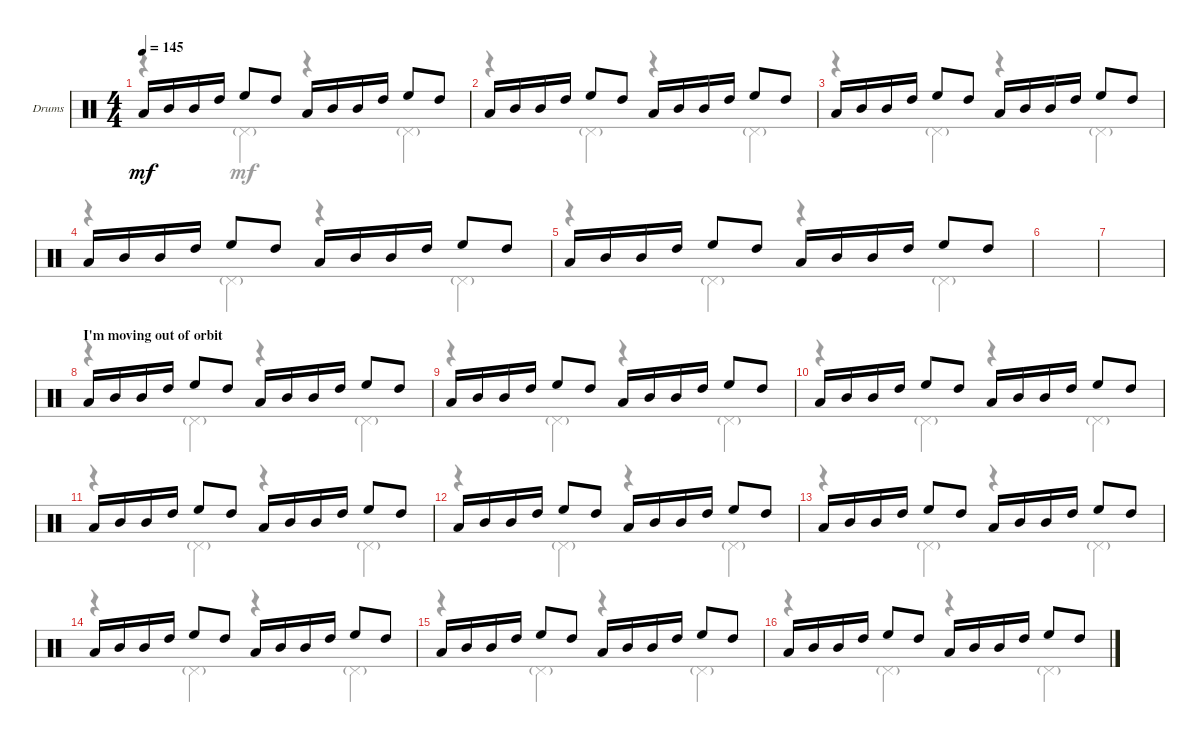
\defaultSystemsLayout 4
\bracketExtendMode groupsimilarinstruments
\firstSystemTrackNameOrientation horizontal
\otherSystemsTrackNameOrientation horizontal
\track ("Drumkit" "Drums") {instrument percussion}
\staff {score}
\articulation defaults
\voice
\ts (4 4)
\tempo 145
\clef neutral
\ks c "Low Tom (hit)".16{dy mf} "Mid Tom (hit)".16 "Mid Tom (hit)".16 "High Tom (hit)".16 "High Floor Tom (hit)".8 "High Tom (hit)".8 "Low Tom (hit)".16 "Mid Tom (hit)".16 "Mid Tom (hit)".16 "High Tom (hit)".16 "High Floor Tom (hit)".8 "High Tom (hit)".8
|
"Low Tom (hit)".16 "Mid Tom (hit)".16 "Mid Tom (hit)".16 "High Tom (hit)".16 "High Floor Tom (hit)".8 "High Tom (hit)".8 "Low Tom (hit)".16 "Mid Tom (hit)".16 "Mid Tom (hit)".16 "High Tom (hit)".16 "High Floor Tom (hit)".8 "High Tom (hit)".8 |
"Low Tom (hit)".16 "Mid Tom (hit)".16 "Mid Tom (hit)".16 "High Tom (hit)".16 "High Floor Tom (hit)".8 "High Tom (hit)".8 "Low Tom (hit)".16 "Mid Tom (hit)".16 "Mid Tom (hit)".16 "High Tom (hit)".16 "High Floor Tom (hit)".8 "High Tom (hit)".8 |
"Low Tom (hit)".16 "Mid Tom (hit)".16 "Mid Tom (hit)".16 "High Tom (hit)".16 "High Floor Tom (hit)".8 "High Tom (hit)".8 "Low Tom (hit)".16 "Mid Tom (hit)".16 "Mid Tom (hit)".16 "High Tom (hit)".16 "High Floor Tom (hit)".8 "High Tom (hit)".8 |
"Low Tom (hit)".16 "Mid Tom (hit)".16 "Mid Tom (hit)".16 "High Tom (hit)".16 "High Floor Tom (hit)".8 "High Tom (hit)".8 "Low Tom (hit)".16 "Mid Tom (hit)".16 "Mid Tom (hit)".16 "High Tom (hit)".16 "High Floor Tom (hit)".8 "High Tom (hit)".8 |
|
|
\section ("" "I'm moving out of orbit")
"Low Tom (hit)".16 "Mid Tom (hit)".16 "Mid Tom (hit)".16 "High Tom (hit)".16 "High Floor Tom (hit)".8 "High Tom (hit)".8 "Low Tom (hit)".16 "Mid Tom (hit)".16 "Mid Tom (hit)".16 "High Tom (hit)".16 "High Floor Tom (hit)".8 "High Tom (hit)".8 |
"Low Tom (hit)".16 "Mid Tom (hit)".16 "Mid Tom (hit)".16 "High Tom (hit)".16 "High Floor Tom (hit)".8 "High Tom (hit)".8 "Low Tom (hit)".16 "Mid Tom (hit)".16 "Mid Tom (hit)".16 "High Tom (hit)".16 "High Floor Tom (hit)".8 "High Tom (hit)".8 |
"Low Tom (hit)".16 "Mid Tom (hit)".16 "Mid Tom (hit)".16 "High Tom (hit)".16 "High Floor Tom (hit)".8 "High Tom (hit)".8 "Low Tom (hit)".16 "Mid Tom (hit)".16 "Mid Tom (hit)".16 "High Tom (hit)".16 "High Floor Tom (hit)".8 "High Tom (hit)".8 |
"Low Tom (hit)".16 "Mid Tom (hit)".16 "Mid Tom (hit)".16 "High Tom (hit)".16 "High Floor Tom (hit)".8 "High Tom (hit)".8 "Low Tom (hit)".16 "Mid Tom (hit)".16 "Mid Tom (hit)".16 "High Tom (hit)".16 "High Floor Tom (hit)".8 "High Tom (hit)".8 |
"Low Tom (hit)".16 "Mid Tom (hit)".16 "Mid Tom (hit)".16 "High Tom (hit)".16 "High Floor Tom (hit)".8 "High Tom (hit)".8 "Low Tom (hit)".16 "Mid Tom (hit)".16 "Mid Tom (hit)".16 "High Tom (hit)".16 "High Floor Tom (hit)".8 "High Tom (hit)".8 |
"Low Tom (hit)".16 "Mid Tom (hit)".16 "Mid Tom (hit)".16 "High Tom (hit)".16 "High Floor Tom (hit)".8 "High Tom (hit)".8 "Low Tom (hit)".16 "Mid Tom (hit)".16 "Mid Tom (hit)".16 "High Tom (hit)".16 "High Floor Tom (hit)".8 "High Tom (hit)".8 |
"Low Tom (hit)".16 "Mid Tom (hit)".16 "Mid Tom (hit)".16 "High Tom (hit)".16 "High Floor Tom (hit)".8 "High Tom (hit)".8 "Low Tom (hit)".16 "Mid Tom (hit)".16 "Mid Tom (hit)".16 "High Tom (hit)".16 "High Floor Tom (hit)".8 "High Tom (hit)".8 |
"Low Tom (hit)".16 "Mid Tom (hit)".16 "Mid Tom (hit)".16 "High Tom (hit)".16 "High Floor Tom (hit)".8 "High Tom (hit)".8 "Low Tom (hit)".16 "Mid Tom (hit)".16 "Mid Tom (hit)".16 "High Tom (hit)".16 "High Floor Tom (hit)".8 "High Tom (hit)".8 |
"Low Tom (hit)".16 "Mid Tom (hit)".16 "Mid Tom (hit)".16 "High Tom (hit)".16 "High Floor Tom (hit)".8 "High Tom (hit)".8 "Low Tom (hit)".16 "Mid Tom (hit)".16 "Mid Tom (hit)".16 "High Tom (hit)".16 "High Floor Tom (hit)".8 "High Tom (hit)".8
\voice
\clef neutral
\ottava regular
\simile none
\ks c
r.4{dy mf} "Pedal Hi-Hat (hit)"{g}.4 r.4 "Pedal Hi-Hat (hit)"{g}.4 |
r.4 "Pedal Hi-Hat (hit)"{g}.4 r.4 "Pedal Hi-Hat (hit)"{g}.4 |
r.4 "Pedal Hi-Hat (hit)"{g}.4 r.4 "Pedal Hi-Hat (hit)"{g}.4 |
r.4 "Pedal Hi-Hat (hit)"{g}.4 r.4 "Pedal Hi-Hat (hit)"{g}.4 |
r.4 "Pedal Hi-Hat (hit)"{g}.4 r.4 "Pedal Hi-Hat (hit)"{g}.4 |
|
|
r.4 "Pedal Hi-Hat (hit)"{g}.4 r.4 "Pedal Hi-Hat (hit)"{g}.4 |
r.4 "Pedal Hi-Hat (hit)"{g}.4 r.4 "Pedal Hi-Hat (hit)"{g}.4 |
r.4 "Pedal Hi-Hat (hit)"{g}.4 r.4 "Pedal Hi-Hat (hit)"{g}.4 |
r.4 "Pedal Hi-Hat (hit)"{g}.4 r.4 "Pedal Hi-Hat (hit)"{g}.4 |
r.4 "Pedal Hi-Hat (hit)"{g}.4 r.4 "Pedal Hi-Hat (hit)"{g}.4 |
r.4 "Pedal Hi-Hat (hit)"{g}.4 r.4 "Pedal Hi-Hat (hit)"{g}.4 |
r.4 "Pedal Hi-Hat (hit)"{g}.4 r.4 "Pedal Hi-Hat (hit)"{g}.4 |
r.4 "Pedal Hi-Hat (hit)"{g}.4 r.4 "Pedal Hi-Hat (hit)"{g}.4 |
r.4 "Pedal Hi-Hat (hit)"{g}.4 r.4 "Pedal Hi-Hat (hit)"{g}.4
